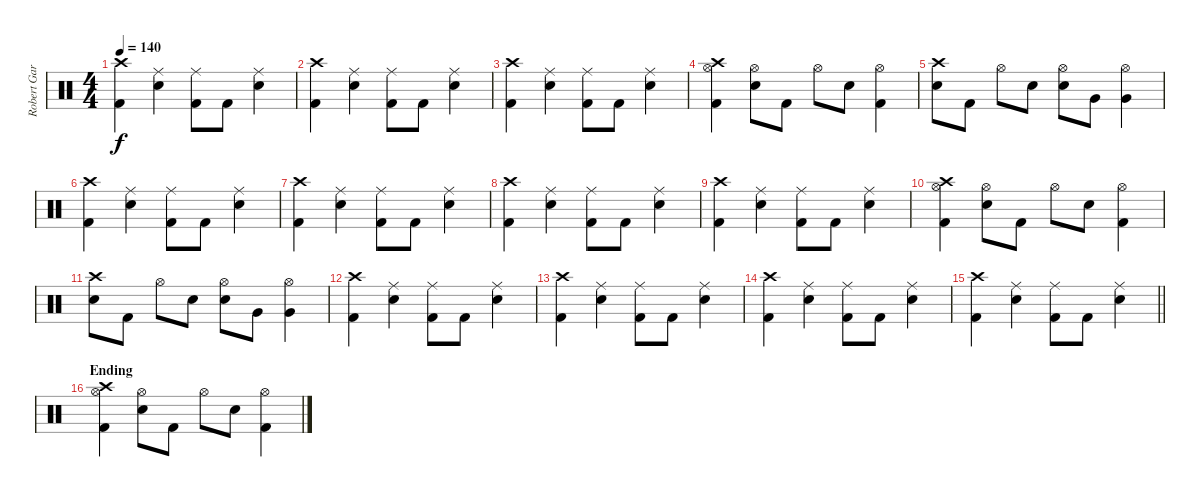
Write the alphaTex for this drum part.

\track ("Robert Garven" "Robert Gar") {instrument percussion}
\staff {score}
\articulation defaults
\ts (4 4)
\tempo 140
\clef neutral
\ks c
("Crash high (hit)" "Kick (hit) 2").4{dy f} ("Ride (middle)" "Electric Snare (hit)").4 ("Ride (middle)" "Kick (hit) 2").8 "Kick (hit) 2".8 ("Ride (middle)" "Electric Snare (hit)").4 |
("Crash high (hit)" "Kick (hit) 2").4 ("Ride (middle)" "Electric Snare (hit)").4 ("Ride (middle)" "Kick (hit) 2").8 "Kick (hit) 2".8 ("Ride (middle)" "Electric Snare (hit)").4 |
("Crash high (hit)" "Kick (hit) 2").4 ("Ride (middle)" "Electric Snare (hit)").4 ("Ride (middle)" "Kick (hit) 2").8 "Kick (hit) 2".8 ("Ride (middle)" "Electric Snare (hit)").4 |
("Crash high (hit)" "Hi-Hat (open)" "Kick (hit) 2").4 ("Hi-Hat (open)" "Electric Snare (hit)").8 "Kick (hit) 2".8 "Hi-Hat (open)".8 "Electric Snare (hit)".8 ("Hi-Hat (open)" "Kick (hit) 2").4 |
("Crash high (hit)" "Electric Snare (hit)").8 "Kick (hit) 2".8 "Hi-Hat (open)".8 "Electric Snare (hit)".8 ("Hi-Hat (open)" "Electric Snare (hit)").8 "Very Low Tom (hit)".8 ("Hi-Hat (open)" "Very Low Tom (hit)").4 |
("Crash high (hit)" "Kick (hit) 2").4 ("Ride (middle)" "Electric Snare (hit)").4 ("Ride (middle)" "Kick (hit) 2").8 "Kick (hit) 2".8 ("Ride (middle)" "Electric Snare (hit)").4 |
("Crash high (hit)" "Kick (hit) 2").4 ("Ride (middle)" "Electric Snare (hit)").4 ("Ride (middle)" "Kick (hit) 2").8 "Kick (hit) 2".8 ("Ride (middle)" "Electric Snare (hit)").4 |
("Crash high (hit)" "Kick (hit) 2").4 ("Ride (middle)" "Electric Snare (hit)").4 ("Ride (middle)" "Kick (hit) 2").8 "Kick (hit) 2".8 ("Ride (middle)" "Electric Snare (hit)").4 |
("Crash high (hit)" "Kick (hit) 2").4 ("Ride (middle)" "Electric Snare (hit)").4 ("Ride (middle)" "Kick (hit) 2").8 "Kick (hit) 2".8 ("Ride (middle)" "Electric Snare (hit)").4 |
("Crash high (hit)" "Hi-Hat (open)" "Kick (hit) 2").4 ("Hi-Hat (open)" "Electric Snare (hit)").8 "Kick (hit) 2".8 "Hi-Hat (open)".8 "Electric Snare (hit)".8 ("Hi-Hat (open)" "Kick (hit) 2").4 |
("Crash high (hit)" "Electric Snare (hit)").8 "Kick (hit) 2".8 "Hi-Hat (open)".8 "Electric Snare (hit)".8 ("Hi-Hat (open)" "Electric Snare (hit)").8 "Very Low Tom (hit)".8 ("Hi-Hat (open)" "Very Low Tom (hit)").4 |
("Crash high (hit)" "Kick (hit) 2").4 ("Ride (middle)" "Electric Snare (hit)").4 ("Ride (middle)" "Kick (hit) 2").8 "Kick (hit) 2".8 ("Ride (middle)" "Electric Snare (hit)").4 |
("Crash high (hit)" "Kick (hit) 2").4 ("Ride (middle)" "Electric Snare (hit)").4 ("Ride (middle)" "Kick (hit) 2").8 "Kick (hit) 2".8 ("Ride (middle)" "Electric Snare (hit)").4 |
("Crash high (hit)" "Kick (hit) 2").4 ("Ride (middle)" "Electric Snare (hit)").4 ("Ride (middle)" "Kick (hit) 2").8 "Kick (hit) 2".8 ("Ride (middle)" "Electric Snare (hit)").4 |
\barLineRight lightlight
("Crash high (hit)" "Kick (hit) 2").4 ("Ride (middle)" "Electric Snare (hit)").4 ("Ride (middle)" "Kick (hit) 2").8 "Kick (hit) 2".8 ("Ride (middle)" "Electric Snare (hit)").4 |
\section ("" "Ending")
("Crash high (hit)" "Hi-Hat (open)" "Kick (hit) 2").4 ("Hi-Hat (open)" "Electric Snare (hit)").8 "Kick (hit) 2".8 "Hi-Hat (open)".8 "Electric Snare (hit)".8 ("Hi-Hat (open)" "Kick (hit) 2").4
